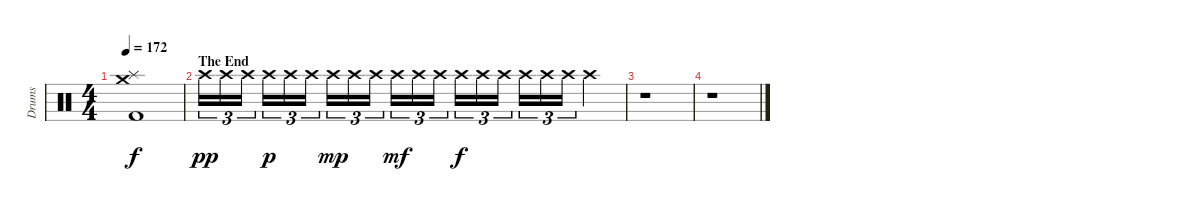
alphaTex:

\track ("Drums" "Drums") {instrument percussion}
\staff {score}
\articulation defaults
\ts (4 4)
\tempo 172
\clef neutral
\ks c
("Kick (hit) 2" "Crash medium (hit)" "Splash (hit)").1{dy f} |
\section ("" "The End")
"Crash high (hit)".16{tu (3 2) dy pp} "Crash high (hit)".16{tu (3 2)} "Crash high (hit)".16{tu (3 2)} "Crash high (hit)".16{tu (3 2) dy p} "Crash high (hit)".16{tu (3 2)} "Crash high (hit)".16{tu (3 2)} "Crash high (hit)".16{tu (3 2) dy mp} "Crash high (hit)".16{tu (3 2)} "Crash high (hit)".16{tu (3 2)} "Crash high (hit)".16{tu (3 2) dy mf} "Crash high (hit)".16{tu (3 2)} "Crash high (hit)".16{tu (3 2)} "Crash high (hit)".16{tu (3 2) dy f} "Crash high (hit)".16{tu (3 2)} "Crash high (hit)".16{tu (3 2)} "Crash high (hit)".16{tu (3 2)} "Crash high (hit)".16{tu (3 2)} "Crash high (hit)".16{tu (3 2)} "Crash high (hit)".4 |
r.1 |
r.1
